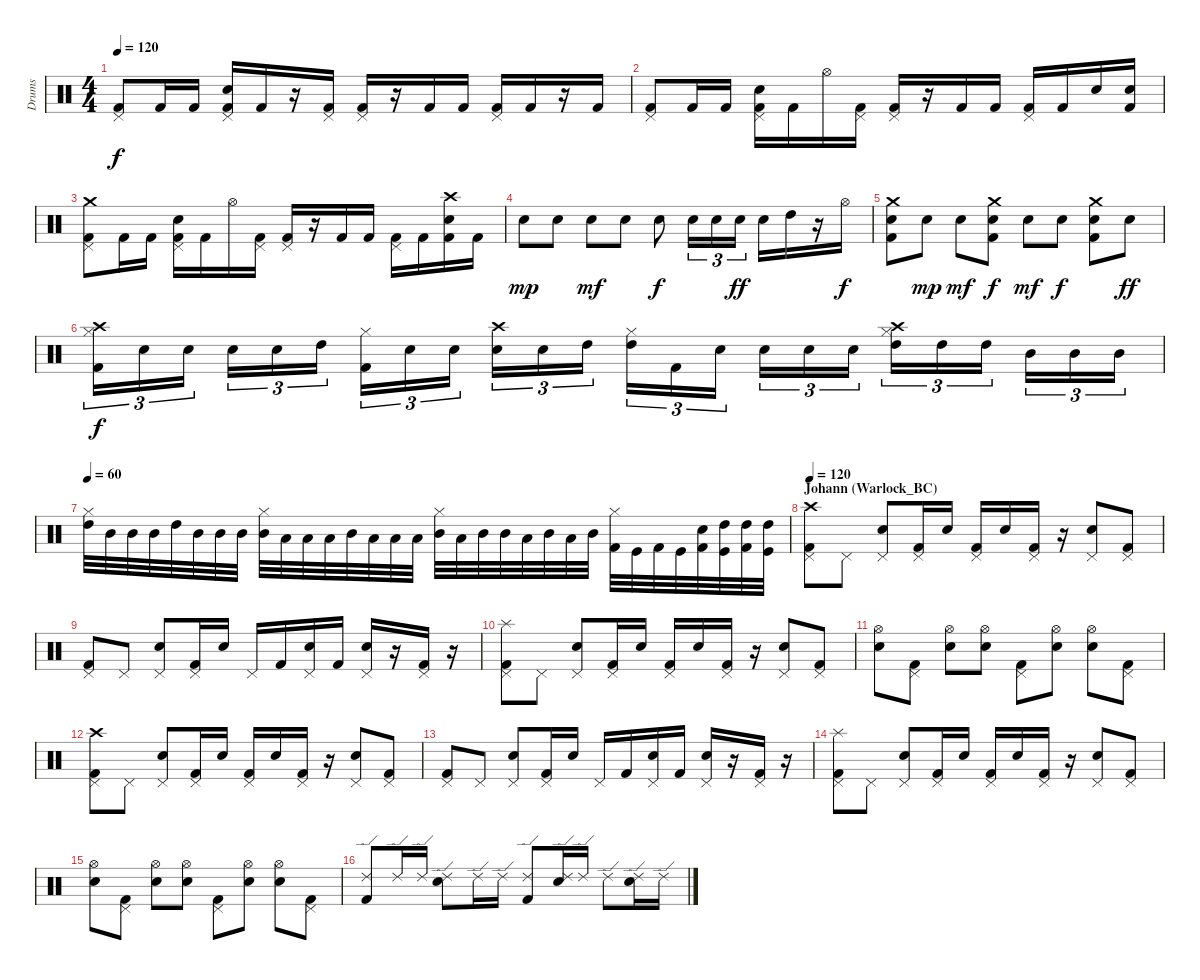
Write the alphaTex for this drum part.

\track ("Drums" "Drums") {instrument percussion}
\staff {score}
\articulation defaults
\ts (4 4)
\tempo 120
\clef neutral
\ks c
("Pedal Hi-Hat (hit)" "Kick (hit) 2").8{dy f} "Kick (hit) 2".16 "Kick (hit) 2".16 ("Pedal Hi-Hat (hit)" "Electric Snare (hit)" "Kick (hit) 2").16 "Kick (hit) 2".16 r.16 ("Pedal Hi-Hat (hit)" "Kick (hit) 2").16 ("Pedal Hi-Hat (hit)" "Kick (hit) 2").16 r.16 "Kick (hit) 2".16 "Kick (hit) 2".16 ("Pedal Hi-Hat (hit)" "Kick (hit) 2").16 "Kick (hit) 2".16 r.16 "Kick (hit) 2".16 |
("Pedal Hi-Hat (hit)" "Kick (hit) 2").8 "Kick (hit) 2".16 "Kick (hit) 2".16 ("Pedal Hi-Hat (hit)" "Electric Snare (hit)" "Kick (hit) 2").16 "Kick (hit) 2".16 "Hi-Hat (open)".16 ("Pedal Hi-Hat (hit)" "Kick (hit) 2").16 ("Pedal Hi-Hat (hit)" "Kick (hit) 2").16 r.16 "Kick (hit) 2".16 "Kick (hit) 2".16 ("Pedal Hi-Hat (hit)" "Kick (hit) 2").16 "Kick (hit) 2".16 "Electric Snare (hit)".16 ("Electric Snare (hit)" "Kick (hit) 2").16 |
("Crash medium (hit)" "Pedal Hi-Hat (hit)" "Kick (hit) 2").8 "Kick (hit) 2".16 "Kick (hit) 2".16 ("Pedal Hi-Hat (hit)" "Electric Snare (hit)" "Kick (hit) 2").16 "Kick (hit) 2".16 "Hi-Hat (open)".16 ("Pedal Hi-Hat (hit)" "Kick (hit) 2").16 ("Pedal Hi-Hat (hit)" "Kick (hit) 2").16 r.16 "Kick (hit) 2".16 "Kick (hit) 2".16 ("Pedal Hi-Hat (hit)" "Kick (hit) 2").16 "Kick (hit) 2".16 ("Crash high (hit)" "Electric Snare (hit)" "Kick (hit) 2").16 "Kick (hit) 2".16 |
"Electric Snare (hit)".8{dy mp} "Electric Snare (hit)".8 "Electric Snare (hit)".8{dy mf} "Electric Snare (hit)".8 "Electric Snare (hit)".8{dy f} "Electric Snare (hit)".16{tu (3 2)} "Electric Snare (hit)".16{tu (3 2)} "Electric Snare (hit)".16{tu (3 2) dy ff} "Electric Snare (hit)".16 "High Tom (hit)".16 r.16 "Hi-Hat (open)".16{dy f} |
("Crash medium (hit)" "Electric Snare (hit)" "Kick (hit) 2").8 "Electric Snare (hit)".8{dy mp} "Electric Snare (hit)".8{dy mf} ("Crash medium (hit)" "Electric Snare (hit)" "Kick (hit) 2").8{dy f} "Electric Snare (hit)".8{dy mf} "Electric Snare (hit)".8{dy f} ("Crash medium (hit)" "Electric Snare (hit)" "Kick (hit) 2").8 "Electric Snare (hit)".8{dy ff} |
("Crash high (hit)" "Hi-Hat (closed)" "Kick (hit) 2").16{tu (3 2) dy f} "Electric Snare (hit)".16{tu (3 2)} "Electric Snare (hit)".16{tu (3 2)} "Electric Snare (hit)".16{tu (3 2)} "Electric Snare (hit)".16{tu (3 2)} "High Tom (hit)".16{tu (3 2)} ("Hi-Hat (closed)" "Kick (hit) 2").16{tu (3 2)} "Electric Snare (hit)".16{tu (3 2)} "Electric Snare (hit)".16{tu (3 2)} ("Crash high (hit)" "Electric Snare (hit)").16{tu (3 2)} "Electric Snare (hit)".16{tu (3 2)} "High Tom (hit)".16{tu (3 2)} ("Hi-Hat (closed)" "High Tom (hit)").16{tu (3 2)} "Kick (hit) 2".16{tu (3 2)} "Electric Snare (hit)".16{tu (3 2)} "Electric Snare (hit)".16{tu (3 2)} "Electric Snare (hit)".16{tu (3 2)} "Electric Snare (hit)".16{tu (3 2)} ("Crash high (hit)" "Hi-Hat (closed)" "High Tom (hit)").16{tu (3 2)} "High Tom (hit)".16{tu (3 2)} "High Tom (hit)".16{tu (3 2)} "Mid Tom (hit)".16{tu (3 2)} "Mid Tom (hit)".16{tu (3 2)} "Mid Tom (hit)".16{tu (3 2)} |
\tempo 60
("Hi-Hat (closed)" "High Tom (hit)").32 "Mid Tom (hit)".32 "Mid Tom (hit)".32 "Mid Tom (hit)".32 "High Tom (hit)".32 "Mid Tom (hit)".32 "Mid Tom (hit)".32 "Mid Tom (hit)".32 ("Hi-Hat (closed)" "Mid Tom (hit)").32 "Low Tom (hit)".32 "Low Tom (hit)".32 "Low Tom (hit)".32 "Mid Tom (hit)".32 "Low Tom (hit)".32 "Low Tom (hit)".32 "Low Tom (hit)".32 ("Hi-Hat (closed)" "Mid Tom (hit)").32 "Low Tom (hit)".32 "Mid Tom (hit)".32 "Mid Tom (hit)".32 "Low Tom (hit)".32 "Mid Tom (hit)".32 "Low Tom (hit)".32 "Mid Tom (hit)".32 ("Hi-Hat (closed)" "Kick (hit) 2").32 "Kick (hit)".32 "Kick (hit) 2".32 "Kick (hit)".32 ("Electric Snare (hit)" "Kick (hit) 2").32 ("High Tom (hit)" "Kick (hit)").32 ("High Tom (hit)" "Kick (hit) 2").32 ("High Tom (hit)" "Kick (hit)").32 |
\section ("" "Johann (Warlock_BC)")
\tempo 120
("Crash high (hit)" "Pedal Hi-Hat (hit)" "Kick (hit) 2").8 "Pedal Hi-Hat (hit)".8 ("Pedal Hi-Hat (hit)" "Electric Snare (hit)").8 ("Pedal Hi-Hat (hit)" "Kick (hit) 2").16 "Electric Snare (hit)".16 ("Pedal Hi-Hat (hit)" "Kick (hit) 2").16 "Electric Snare (hit)".16 ("Pedal Hi-Hat (hit)" "Kick (hit) 2").16 r.16 ("Pedal Hi-Hat (hit)" "Electric Snare (hit)").8 ("Pedal Hi-Hat (hit)" "Kick (hit) 2").8 |
("Pedal Hi-Hat (hit)" "Kick (hit) 2").8 "Pedal Hi-Hat (hit)".8 ("Pedal Hi-Hat (hit)" "Electric Snare (hit)").8 ("Pedal Hi-Hat (hit)" "Kick (hit) 2").16 "Electric Snare (hit)".16 "Pedal Hi-Hat (hit)".16 "Kick (hit) 2".16 ("Pedal Hi-Hat (hit)" "Electric Snare (hit)").16 "Kick (hit) 2".16 ("Pedal Hi-Hat (hit)" "Electric Snare (hit)").16 r.16 ("Pedal Hi-Hat (hit)" "Kick (hit) 2").16 r.16 |
("Splash (hit)" "Pedal Hi-Hat (hit)" "Kick (hit) 2").8 "Pedal Hi-Hat (hit)".8 ("Pedal Hi-Hat (hit)" "Electric Snare (hit)").8 ("Pedal Hi-Hat (hit)" "Kick (hit) 2").16 "Electric Snare (hit)".16 ("Pedal Hi-Hat (hit)" "Kick (hit) 2").16 "Electric Snare (hit)".16 ("Pedal Hi-Hat (hit)" "Kick (hit) 2").16 r.16 ("Pedal Hi-Hat (hit)" "Electric Snare (hit)").8 ("Pedal Hi-Hat (hit)" "Kick (hit) 2").8 |
("Hi-Hat (open)" "Electric Snare (hit)").8 ("Pedal Hi-Hat (hit)" "Kick (hit) 2").8 ("Hi-Hat (open)" "Electric Snare (hit)").8 ("Hi-Hat (open)" "Electric Snare (hit)").8 ("Pedal Hi-Hat (hit)" "Kick (hit) 2").8 ("Hi-Hat (open)" "Electric Snare (hit)").8 ("Hi-Hat (open)" "Electric Snare (hit)").8 ("Pedal Hi-Hat (hit)" "Kick (hit) 2").8 |
("Crash high (hit)" "Pedal Hi-Hat (hit)" "Kick (hit) 2").8 "Pedal Hi-Hat (hit)".8 ("Pedal Hi-Hat (hit)" "Electric Snare (hit)").8 ("Pedal Hi-Hat (hit)" "Kick (hit) 2").16 "Electric Snare (hit)".16 ("Pedal Hi-Hat (hit)" "Kick (hit) 2").16 "Electric Snare (hit)".16 ("Pedal Hi-Hat (hit)" "Kick (hit) 2").16 r.16 ("Pedal Hi-Hat (hit)" "Electric Snare (hit)").8 ("Pedal Hi-Hat (hit)" "Kick (hit) 2").8 |
("Pedal Hi-Hat (hit)" "Kick (hit) 2").8 "Pedal Hi-Hat (hit)".8 ("Pedal Hi-Hat (hit)" "Electric Snare (hit)").8 ("Pedal Hi-Hat (hit)" "Kick (hit) 2").16 "Electric Snare (hit)".16 "Pedal Hi-Hat (hit)".16 "Kick (hit) 2".16 ("Pedal Hi-Hat (hit)" "Electric Snare (hit)").16 "Kick (hit) 2".16 ("Pedal Hi-Hat (hit)" "Electric Snare (hit)").16 r.16 ("Pedal Hi-Hat (hit)" "Kick (hit) 2").16 r.16 |
("Splash (hit)" "Pedal Hi-Hat (hit)" "Kick (hit) 2").8 "Pedal Hi-Hat (hit)".8 ("Pedal Hi-Hat (hit)" "Electric Snare (hit)").8 ("Pedal Hi-Hat (hit)" "Kick (hit) 2").16 "Electric Snare (hit)".16 ("Pedal Hi-Hat (hit)" "Kick (hit) 2").16 "Electric Snare (hit)".16 ("Pedal Hi-Hat (hit)" "Kick (hit) 2").16 r.16 ("Pedal Hi-Hat (hit)" "Electric Snare (hit)").8 ("Pedal Hi-Hat (hit)" "Kick (hit) 2").8 |
("Hi-Hat (open)" "Electric Snare (hit)").8 ("Pedal Hi-Hat (hit)" "Kick (hit) 2").8 ("Hi-Hat (open)" "Electric Snare (hit)").8 ("Hi-Hat (open)" "Electric Snare (hit)").8 ("Pedal Hi-Hat (hit)" "Kick (hit) 2").8 ("Hi-Hat (open)" "Electric Snare (hit)").8 ("Hi-Hat (open)" "Electric Snare (hit)").8 ("Pedal Hi-Hat (hit)" "Kick (hit) 2").8 |
("Ride (edge) 2" "Kick (hit) 2").8 "Ride (edge) 2".16 "Ride (edge) 2".16 ("Ride (edge) 2" "Electric Snare (hit)").8 "Ride (edge) 2".16 "Ride (edge) 2".16 ("Ride (edge) 2" "Kick (hit) 2").8 ("Ride (edge) 2" "Electric Snare (hit)").16 "Ride (edge) 2".16 "Ride (edge) 2".8 ("Ride (edge) 2" "Electric Snare (hit)").16 "Ride (edge) 2".16
